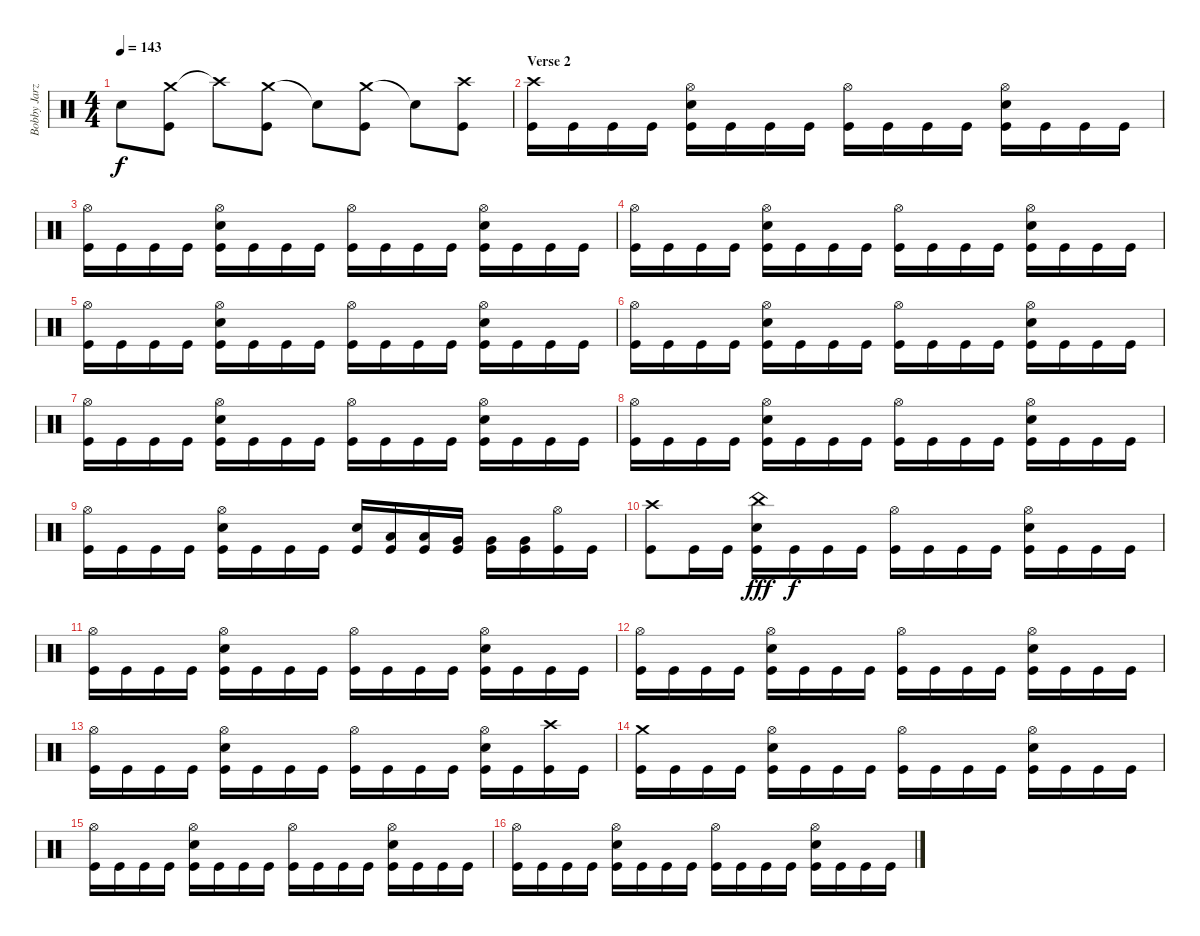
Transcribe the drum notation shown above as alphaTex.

\track ("Bobby Jarzombek" "Bobby Jarz") {instrument percussion}
\staff {score}
\articulation defaults
\ts (4 4)
\tempo 143
\clef neutral
\ks c "Electric Snare (hit)".8{dy f}
("Crash medium (hit)" "Kick (hit)").8 "Crash high (hit)"{t}.8{volume 0} ("Crash medium (hit)" "Kick (hit)").8{volume 13} "Snare (hit)"{t}.8{volume 0} ("Crash medium (hit)" "Kick (hit)").8{volume 13} "Snare (hit)"{t}.8{volume 0} ("Crash high (hit)" "Kick (hit)").8{volume 13} |
\section ("" "Verse 2")
("Crash high (hit)" "Kick (hit)").16 "Kick (hit)".16 "Kick (hit)".16 "Kick (hit)".16 ("Hi-Hat (open)" "Electric Snare (hit)" "Kick (hit)").16 "Kick (hit)".16 "Kick (hit)".16 "Kick (hit)".16 ("Hi-Hat (open)" "Kick (hit)").16 "Kick (hit)".16 "Kick (hit)".16 "Kick (hit)".16 ("Hi-Hat (open)" "Electric Snare (hit)" "Kick (hit)").16 "Kick (hit)".16 "Kick (hit)".16 "Kick (hit)".16 |
("Hi-Hat (open)" "Kick (hit)").16 "Kick (hit)".16 "Kick (hit)".16 "Kick (hit)".16 ("Hi-Hat (open)" "Electric Snare (hit)" "Kick (hit)").16 "Kick (hit)".16 "Kick (hit)".16 "Kick (hit)".16 ("Hi-Hat (open)" "Kick (hit)").16 "Kick (hit)".16 "Kick (hit)".16 "Kick (hit)".16 ("Hi-Hat (open)" "Electric Snare (hit)" "Kick (hit)").16 "Kick (hit)".16 "Kick (hit)".16 "Kick (hit)".16 |
("Hi-Hat (open)" "Kick (hit)").16 "Kick (hit)".16 "Kick (hit)".16 "Kick (hit)".16 ("Hi-Hat (open)" "Electric Snare (hit)" "Kick (hit)").16 "Kick (hit)".16 "Kick (hit)".16 "Kick (hit)".16 ("Hi-Hat (open)" "Kick (hit)").16 "Kick (hit)".16 "Kick (hit)".16 "Kick (hit)".16 ("Hi-Hat (open)" "Electric Snare (hit)" "Kick (hit)").16 "Kick (hit)".16 "Kick (hit)".16 "Kick (hit)".16 |
("Hi-Hat (open)" "Kick (hit)").16 "Kick (hit)".16 "Kick (hit)".16 "Kick (hit)".16 ("Hi-Hat (open)" "Electric Snare (hit)" "Kick (hit)").16 "Kick (hit)".16 "Kick (hit)".16 "Kick (hit)".16 ("Hi-Hat (open)" "Kick (hit)").16 "Kick (hit)".16 "Kick (hit)".16 "Kick (hit)".16 ("Hi-Hat (open)" "Electric Snare (hit)" "Kick (hit)").16 "Kick (hit)".16 "Kick (hit)".16 "Kick (hit)".16 |
("Hi-Hat (open)" "Kick (hit)").16 "Kick (hit)".16 "Kick (hit)".16 "Kick (hit)".16 ("Hi-Hat (open)" "Electric Snare (hit)" "Kick (hit)").16 "Kick (hit)".16 "Kick (hit)".16 "Kick (hit)".16 ("Hi-Hat (open)" "Kick (hit)").16 "Kick (hit)".16 "Kick (hit)".16 "Kick (hit)".16 ("Hi-Hat (open)" "Electric Snare (hit)" "Kick (hit)").16 "Kick (hit)".16 "Kick (hit)".16 "Kick (hit)".16 |
("Hi-Hat (open)" "Kick (hit)").16 "Kick (hit)".16 "Kick (hit)".16 "Kick (hit)".16 ("Hi-Hat (open)" "Electric Snare (hit)" "Kick (hit)").16 "Kick (hit)".16 "Kick (hit)".16 "Kick (hit)".16 ("Hi-Hat (open)" "Kick (hit)").16 "Kick (hit)".16 "Kick (hit)".16 "Kick (hit)".16 ("Hi-Hat (open)" "Electric Snare (hit)" "Kick (hit)").16 "Kick (hit)".16 "Kick (hit)".16 "Kick (hit)".16 |
("Hi-Hat (open)" "Kick (hit)").16 "Kick (hit)".16 "Kick (hit)".16 "Kick (hit)".16 ("Hi-Hat (open)" "Electric Snare (hit)" "Kick (hit)").16 "Kick (hit)".16 "Kick (hit)".16 "Kick (hit)".16 ("Hi-Hat (open)" "Kick (hit)").16 "Kick (hit)".16 "Kick (hit)".16 "Kick (hit)".16 ("Hi-Hat (open)" "Electric Snare (hit)" "Kick (hit)").16 "Kick (hit)".16 "Kick (hit)".16 "Kick (hit)".16 |
("Hi-Hat (open)" "Kick (hit)").16 "Kick (hit)".16 "Kick (hit)".16 "Kick (hit)".16 ("Hi-Hat (open)" "Electric Snare (hit)" "Kick (hit)").16 "Kick (hit)".16 "Kick (hit)".16 "Kick (hit)".16 ("Electric Snare (hit)" "Kick (hit)").16 ("Low Tom (hit)" "Kick (hit)").16 ("Low Tom (hit)" "Kick (hit)").16 ("Very Low Tom (hit)" "Kick (hit)").16 ("Very Low Tom (hit)" "Kick (hit)").16 ("Very Low Tom (hit)" "Kick (hit)").16 ("Hi-Hat (open)" "Kick (hit)").16 "Kick (hit)".16 |
("Crash high (hit)" "Kick (hit)").8 "Kick (hit)".16 "Kick (hit)".16 ("China (hit)" "Electric Snare (hit)" "Kick (hit)").16{dy fff} "Kick (hit)".16{dy f} "Kick (hit)".16 "Kick (hit)".16 ("Hi-Hat (open)" "Kick (hit)").16 "Kick (hit)".16 "Kick (hit)".16 "Kick (hit)".16 ("Hi-Hat (open)" "Electric Snare (hit)" "Kick (hit)").16 "Kick (hit)".16 "Kick (hit)".16 "Kick (hit)".16 |
("Hi-Hat (open)" "Kick (hit)").16 "Kick (hit)".16 "Kick (hit)".16 "Kick (hit)".16 ("Hi-Hat (open)" "Electric Snare (hit)" "Kick (hit)").16 "Kick (hit)".16 "Kick (hit)".16 "Kick (hit)".16 ("Hi-Hat (open)" "Kick (hit)").16 "Kick (hit)".16 "Kick (hit)".16 "Kick (hit)".16 ("Hi-Hat (open)" "Electric Snare (hit)" "Kick (hit)").16 "Kick (hit)".16 "Kick (hit)".16 "Kick (hit)".16 |
("Hi-Hat (open)" "Kick (hit)").16 "Kick (hit)".16 "Kick (hit)".16 "Kick (hit)".16 ("Hi-Hat (open)" "Electric Snare (hit)" "Kick (hit)").16 "Kick (hit)".16 "Kick (hit)".16 "Kick (hit)".16 ("Hi-Hat (open)" "Kick (hit)").16 "Kick (hit)".16 "Kick (hit)".16 "Kick (hit)".16 ("Hi-Hat (open)" "Electric Snare (hit)" "Kick (hit)").16 "Kick (hit)".16 "Kick (hit)".16 "Kick (hit)".16 |
("Hi-Hat (open)" "Kick (hit)").16 "Kick (hit)".16 "Kick (hit)".16 "Kick (hit)".16 ("Hi-Hat (open)" "Electric Snare (hit)" "Kick (hit)").16 "Kick (hit)".16 "Kick (hit)".16 "Kick (hit)".16 ("Hi-Hat (open)" "Kick (hit)").16 "Kick (hit)".16 "Kick (hit)".16 "Kick (hit)".16 ("Hi-Hat (open)" "Electric Snare (hit)" "Kick (hit)").16 "Kick (hit)".16 ("Crash high (hit)" "Kick (hit)").16 "Kick (hit)".16 |
("Crash medium (hit)" "Kick (hit)").16 "Kick (hit)".16 "Kick (hit)".16 "Kick (hit)".16 ("Hi-Hat (open)" "Electric Snare (hit)" "Kick (hit)").16 "Kick (hit)".16 "Kick (hit)".16 "Kick (hit)".16 ("Hi-Hat (open)" "Kick (hit)").16 "Kick (hit)".16 "Kick (hit)".16 "Kick (hit)".16 ("Hi-Hat (open)" "Electric Snare (hit)" "Kick (hit)").16 "Kick (hit)".16 "Kick (hit)".16 "Kick (hit)".16 |
("Hi-Hat (open)" "Kick (hit)").16 "Kick (hit)".16 "Kick (hit)".16 "Kick (hit)".16 ("Hi-Hat (open)" "Electric Snare (hit)" "Kick (hit)").16 "Kick (hit)".16 "Kick (hit)".16 "Kick (hit)".16 ("Hi-Hat (open)" "Kick (hit)").16 "Kick (hit)".16 "Kick (hit)".16 "Kick (hit)".16 ("Hi-Hat (open)" "Electric Snare (hit)" "Kick (hit)").16 "Kick (hit)".16 "Kick (hit)".16 "Kick (hit)".16 |
("Hi-Hat (open)" "Kick (hit)").16 "Kick (hit)".16 "Kick (hit)".16 "Kick (hit)".16 ("Hi-Hat (open)" "Electric Snare (hit)" "Kick (hit)").16 "Kick (hit)".16 "Kick (hit)".16 "Kick (hit)".16 ("Hi-Hat (open)" "Kick (hit)").16 "Kick (hit)".16 "Kick (hit)".16 "Kick (hit)".16 ("Hi-Hat (open)" "Electric Snare (hit)" "Kick (hit)").16 "Kick (hit)".16 "Kick (hit)".16 "Kick (hit)".16
